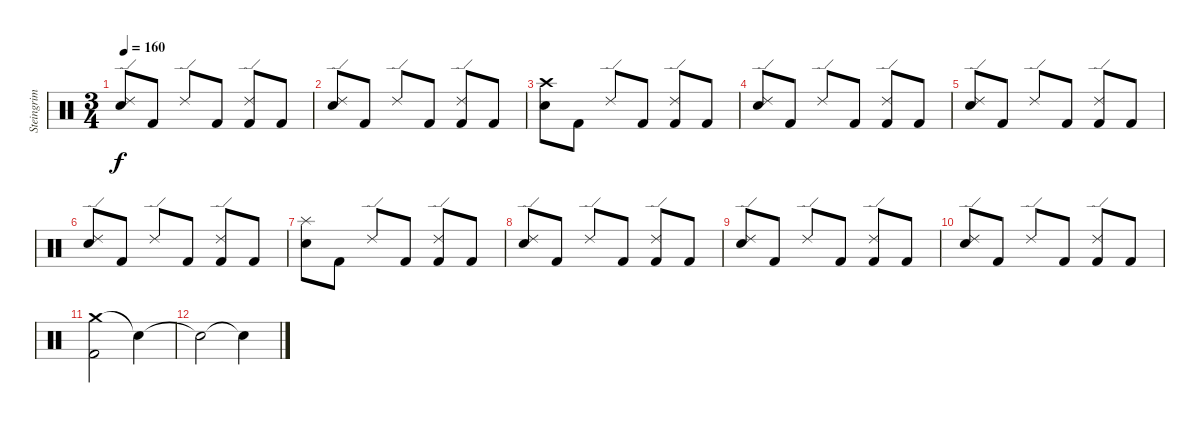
\track ("Steingrim Trommur" "Steingrim ") {instrument percussion}
\staff {score}
\articulation defaults
\ts (3 4)
\tempo 160
\clef neutral
\ks c
("Ride (edge) 2" "Electric Snare (hit)").8{dy f} "Kick (hit) 2".8 "Ride (edge) 2".8 "Kick (hit) 2".8 ("Ride (edge) 2" "Kick (hit) 2").8 "Kick (hit) 2".8 |
("Ride (edge) 2" "Electric Snare (hit)").8 "Kick (hit) 2".8 "Ride (edge) 2".8 "Kick (hit) 2".8 ("Ride (edge) 2" "Kick (hit) 2").8 "Kick (hit) 2".8 |
("Crash high (hit)" "Electric Snare (hit)").8 "Kick (hit) 2".8 "Ride (edge) 2".8 "Kick (hit) 2".8 ("Ride (edge) 2" "Kick (hit) 2").8 "Kick (hit) 2".8 |
("Ride (edge) 2" "Electric Snare (hit)").8 "Kick (hit) 2".8 "Ride (edge) 2".8 "Kick (hit) 2".8 ("Ride (edge) 2" "Kick (hit) 2").8 "Kick (hit) 2".8 |
("Ride (edge) 2" "Electric Snare (hit)").8 "Kick (hit) 2".8 "Ride (edge) 2".8 "Kick (hit) 2".8 ("Ride (edge) 2" "Kick (hit) 2").8 "Kick (hit) 2".8 |
("Ride (edge) 2" "Electric Snare (hit)").8 "Kick (hit) 2".8 "Ride (edge) 2".8 "Kick (hit) 2".8 ("Ride (edge) 2" "Kick (hit) 2").8 "Kick (hit) 2".8 |
("Splash (hit)" "Electric Snare (hit)").8 "Kick (hit) 2".8 "Ride (edge) 2".8 "Kick (hit) 2".8 ("Ride (edge) 2" "Kick (hit) 2").8 "Kick (hit) 2".8 |
("Ride (edge) 2" "Electric Snare (hit)").8 "Kick (hit) 2".8 "Ride (edge) 2".8 "Kick (hit) 2".8 ("Ride (edge) 2" "Kick (hit) 2").8 "Kick (hit) 2".8 |
("Ride (edge) 2" "Electric Snare (hit)").8 "Kick (hit) 2".8 "Ride (edge) 2".8 "Kick (hit) 2".8 ("Ride (edge) 2" "Kick (hit) 2").8 "Kick (hit) 2".8 |
("Ride (edge) 2" "Electric Snare (hit)").8 "Kick (hit) 2".8 "Ride (edge) 2".8 "Kick (hit) 2".8 ("Ride (edge) 2" "Kick (hit) 2").8 "Kick (hit) 2".8 |
("Crash medium (hit)" "Kick (hit) 2").2 "Snare (hit)"{t}.4 |
"Snare (hit)"{t}.2 "Snare (hit)"{t}.4
